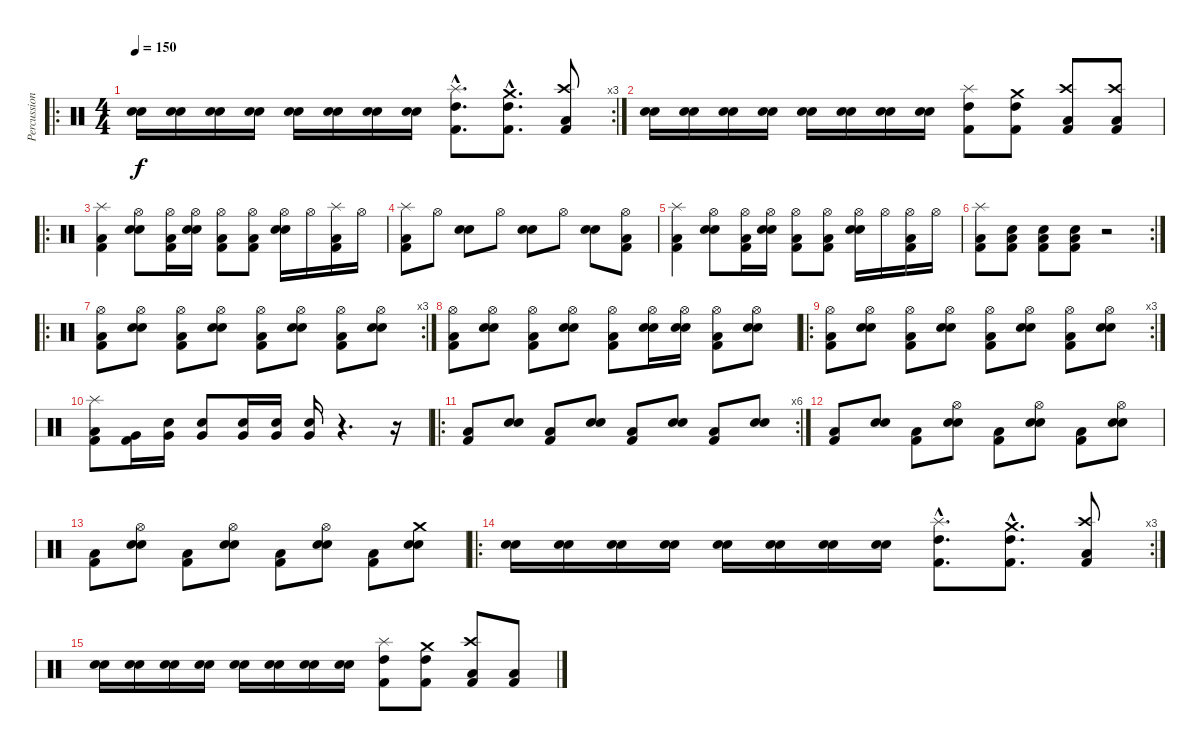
\track ("Percussions" "Percussion") {instrument percussion}
\staff {score}
\articulation defaults
\ro
\rc 3
\ts (4 4)
\tempo 150
\clef neutral
\ks c
("Snare (hit) 2" "Electric Snare (hit)").16{dy f} ("Snare (hit) 2" "Electric Snare (hit)").16 ("Snare (hit) 2" "Electric Snare (hit)").16 ("Snare (hit) 2" "Electric Snare (hit)").16 ("Snare (hit) 2" "Electric Snare (hit)").16 ("Snare (hit) 2" "Electric Snare (hit)").16 ("Snare (hit) 2" "Electric Snare (hit)").16 ("Snare (hit) 2" "Electric Snare (hit)").16 ("Splash (hit)"{hac} "Kick (hit) 2"{hac} "High Tom (hit)"{hac}).8{d} ("Crash medium (hit)"{hac} "Kick (hit) 2"{hac} "High Tom (hit)"{hac}).8{d} ("Crash high (hit)" "Kick (hit) 2" "Low Floor Tom (hit)").8 |
("Snare (hit) 2" "Electric Snare (hit)").16 ("Snare (hit) 2" "Electric Snare (hit)").16 ("Snare (hit) 2" "Electric Snare (hit)").16 ("Snare (hit) 2" "Electric Snare (hit)").16 ("Snare (hit) 2" "Electric Snare (hit)").16 ("Snare (hit) 2" "Electric Snare (hit)").16 ("Snare (hit) 2" "Electric Snare (hit)").16 ("Snare (hit) 2" "Electric Snare (hit)").16 ("Splash (hit)" "Kick (hit) 2" "High Tom (hit)").8 ("Crash medium (hit)" "Kick (hit) 2" "High Tom (hit)").8 ("Crash high (hit)" "Kick (hit) 2" "Low Floor Tom (hit)").8 ("Crash high (hit)" "Kick (hit) 2" "Low Floor Tom (hit)").8 |
\ro
("Splash (hit)" "Kick (hit) 2" "Low Floor Tom (hit)").4 ("Hi-Hat (open)" "Snare (hit) 2" "Electric Snare (hit)").8 ("Hi-Hat (open)" "Kick (hit) 2" "Low Floor Tom (hit)").16 ("Hi-Hat (open)" "Snare (hit) 2" "Electric Snare (hit)").16 ("Hi-Hat (open)" "Kick (hit) 2" "Low Floor Tom (hit)").8 ("Hi-Hat (open)" "Kick (hit) 2" "Low Floor Tom (hit)").8 ("Hi-Hat (open)" "Snare (hit) 2" "Electric Snare (hit)").16 "Hi-Hat (open)".16 ("Splash (hit)" "Kick (hit) 2" "Low Floor Tom (hit)").16 "Hi-Hat (open)".16 |
("Splash (hit)" "Kick (hit) 2" "Low Floor Tom (hit)").8 "Hi-Hat (open)".8 ("Snare (hit) 2" "Electric Snare (hit)").8 "Hi-Hat (open)".8 ("Snare (hit) 2" "Electric Snare (hit)").8 "Hi-Hat (open)".8 ("Snare (hit) 2" "Electric Snare (hit)").8 ("Hi-Hat (open)" "Kick (hit) 2" "Low Floor Tom (hit)").8 |
("Splash (hit)" "Kick (hit) 2" "Low Floor Tom (hit)").4 ("Hi-Hat (open)" "Snare (hit) 2" "Electric Snare (hit)").8 ("Hi-Hat (open)" "Kick (hit) 2" "Low Floor Tom (hit)").16 ("Hi-Hat (open)" "Snare (hit) 2" "Electric Snare (hit)").16 ("Hi-Hat (open)" "Kick (hit) 2" "Low Floor Tom (hit)").8 ("Hi-Hat (open)" "Kick (hit) 2" "Low Floor Tom (hit)").8 ("Hi-Hat (open)" "Snare (hit) 2" "Electric Snare (hit)").16 "Hi-Hat (open)".16 ("Hi-Hat (open)" "Kick (hit) 2" "Low Floor Tom (hit)").16 "Hi-Hat (open)".16 |
\rc 2
("Splash (hit)" "Kick (hit) 2" "Low Floor Tom (hit)").8 ("Kick (hit) 2" "Snare (hit) 2" "Low Floor Tom (hit)").8 ("Kick (hit) 2" "Snare (hit) 2" "Low Floor Tom (hit)").8 ("Kick (hit) 2" "Snare (hit) 2" "Low Floor Tom (hit)").8 r.2 |
\ro
\rc 3
("Hi-Hat (open)" "Kick (hit) 2" "Low Floor Tom (hit)").8 ("Hi-Hat (open)" "Snare (hit) 2" "Electric Snare (hit)").8 ("Hi-Hat (open)" "Kick (hit) 2" "Low Floor Tom (hit)").8 ("Hi-Hat (open)" "Snare (hit) 2" "Electric Snare (hit)").8 ("Hi-Hat (open)" "Kick (hit) 2" "Low Floor Tom (hit)").8 ("Hi-Hat (open)" "Snare (hit) 2" "Electric Snare (hit)").8 ("Hi-Hat (open)" "Kick (hit) 2" "Low Floor Tom (hit)").8 ("Hi-Hat (open)" "Snare (hit) 2" "Electric Snare (hit)").8 |
("Hi-Hat (open)" "Kick (hit) 2" "Low Floor Tom (hit)").8 ("Hi-Hat (open)" "Snare (hit) 2" "Electric Snare (hit)").8 ("Hi-Hat (open)" "Kick (hit) 2" "Low Floor Tom (hit)").8 ("Hi-Hat (open)" "Snare (hit) 2" "Electric Snare (hit)").8 ("Hi-Hat (open)" "Kick (hit) 2" "Low Floor Tom (hit)").8 ("Hi-Hat (open)" "Snare (hit) 2" "Electric Snare (hit)").16 ("Hi-Hat (open)" "Snare (hit) 2" "Electric Snare (hit)").16 ("Hi-Hat (open)" "Kick (hit) 2" "Low Floor Tom (hit)").8 ("Hi-Hat (open)" "Snare (hit) 2" "Electric Snare (hit)").8 |
\ro
\rc 3
("Hi-Hat (open)" "Kick (hit) 2" "Low Floor Tom (hit)").8 ("Hi-Hat (open)" "Snare (hit) 2" "Electric Snare (hit)").8 ("Hi-Hat (open)" "Kick (hit) 2" "Low Floor Tom (hit)").8 ("Hi-Hat (open)" "Snare (hit) 2" "Electric Snare (hit)").8 ("Hi-Hat (open)" "Kick (hit) 2" "Low Floor Tom (hit)").8 ("Hi-Hat (open)" "Snare (hit) 2" "Electric Snare (hit)").8 ("Hi-Hat (open)" "Kick (hit) 2" "Low Floor Tom (hit)").8 ("Hi-Hat (open)" "Snare (hit) 2" "Electric Snare (hit)").8 |
("Splash (hit)" "Kick (hit) 2" "Low Floor Tom (hit)").8 ("Kick (hit) 2" "Very Low Tom (hit)").16 ("Snare (hit) 2" "Very Low Tom (hit)").16 ("Snare (hit) 2" "Very Low Tom (hit)").8 ("Snare (hit) 2" "Very Low Tom (hit)").16 ("Snare (hit) 2" "Very Low Tom (hit)").16 ("Snare (hit) 2" "Very Low Tom (hit)").16 r.4{d} r.16 |
\ro
\rc 6
("Kick (hit) 2" "Low Floor Tom (hit)").8 ("Snare (hit) 2" "Electric Snare (hit)").8 ("Kick (hit) 2" "Low Floor Tom (hit)").8 ("Snare (hit) 2" "Electric Snare (hit)").8 ("Kick (hit) 2" "Low Floor Tom (hit)").8 ("Snare (hit) 2" "Electric Snare (hit)").8 ("Kick (hit) 2" "Low Floor Tom (hit)").8 ("Snare (hit) 2" "Electric Snare (hit)").8 |
("Kick (hit) 2" "Low Floor Tom (hit)").8 ("Snare (hit) 2" "Electric Snare (hit)").8 ("Kick (hit) 2" "Low Floor Tom (hit)").8 ("Hi-Hat (open)" "Snare (hit) 2" "Electric Snare (hit)").8 ("Kick (hit) 2" "Low Floor Tom (hit)").8 ("Hi-Hat (open)" "Snare (hit) 2" "Electric Snare (hit)").8 ("Kick (hit) 2" "Low Floor Tom (hit)").8 ("Hi-Hat (open)" "Snare (hit) 2" "Electric Snare (hit)").8 |
("Kick (hit) 2" "Low Floor Tom (hit)").8 ("Hi-Hat (open)" "Snare (hit) 2" "Electric Snare (hit)").8 ("Kick (hit) 2" "Low Floor Tom (hit)").8 ("Hi-Hat (open)" "Snare (hit) 2" "Electric Snare (hit)").8 ("Kick (hit) 2" "Low Floor Tom (hit)").8 ("Hi-Hat (open)" "Snare (hit) 2" "Electric Snare (hit)").8 ("Kick (hit) 2" "Low Floor Tom (hit)").8 ("Crash medium (hit)" "Snare (hit) 2" "Electric Snare (hit)").8 |
\ro
\rc 3
("Snare (hit) 2" "Electric Snare (hit)").16 ("Snare (hit) 2" "Electric Snare (hit)").16 ("Snare (hit) 2" "Electric Snare (hit)").16 ("Snare (hit) 2" "Electric Snare (hit)").16 ("Snare (hit) 2" "Electric Snare (hit)").16 ("Snare (hit) 2" "Electric Snare (hit)").16 ("Snare (hit) 2" "Electric Snare (hit)").16 ("Snare (hit) 2" "Electric Snare (hit)").16 ("Splash (hit)"{hac} "Kick (hit) 2"{hac} "High Tom (hit)"{hac}).8{d} ("Crash medium (hit)"{hac} "Kick (hit) 2"{hac} "High Tom (hit)"{hac}).8{d} ("Crash high (hit)" "Kick (hit) 2" "Low Floor Tom (hit)").8 |
("Snare (hit) 2" "Electric Snare (hit)").16 ("Snare (hit) 2" "Electric Snare (hit)").16 ("Snare (hit) 2" "Electric Snare (hit)").16 ("Snare (hit) 2" "Electric Snare (hit)").16 ("Snare (hit) 2" "Electric Snare (hit)").16 ("Snare (hit) 2" "Electric Snare (hit)").16 ("Snare (hit) 2" "Electric Snare (hit)").16 ("Snare (hit) 2" "Electric Snare (hit)").16 ("Splash (hit)" "Kick (hit) 2" "High Tom (hit)").8 ("Crash medium (hit)" "Kick (hit) 2" "High Tom (hit)").8 ("Crash high (hit)" "Kick (hit) 2" "Low Floor Tom (hit)").8 ("Kick (hit) 2" "Low Floor Tom (hit)").8
